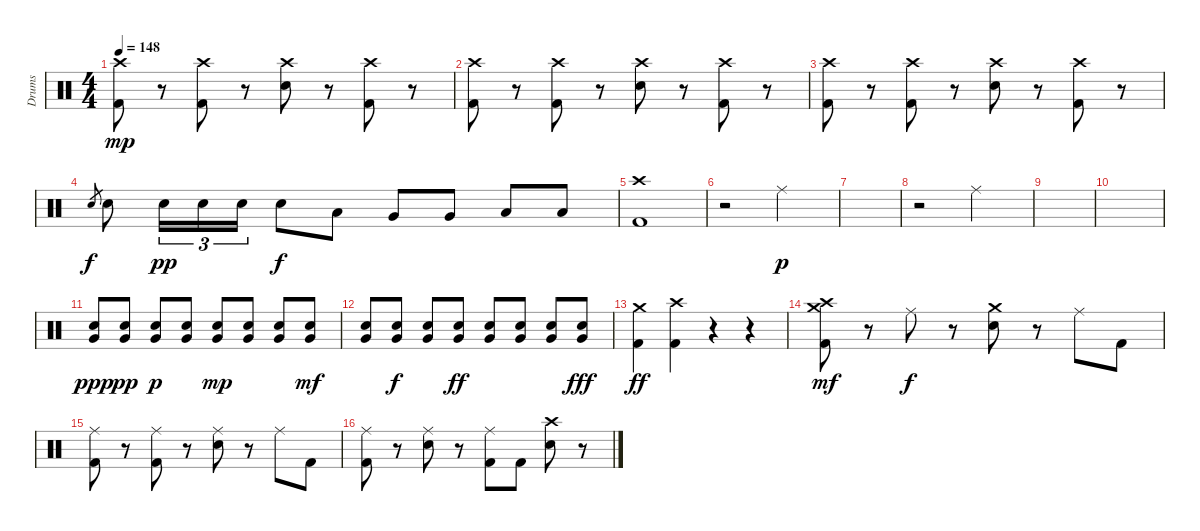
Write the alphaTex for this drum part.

\track ("Drums" "Drums") {instrument percussion}
\staff {score}
\articulation defaults
\ts (4 4)
\tempo 148
\clef neutral
\ks c
("Crash high (hit)" "Kick (hit) 2").8{dy mp} r.8 ("Crash high (hit)" "Kick (hit) 2").8 r.8 ("Crash high (hit)" "Snare (hit) 2").8 r.8 ("Crash high (hit)" "Kick (hit) 2").8 r.8 |
("Crash high (hit)" "Kick (hit) 2").8 r.8 ("Crash high (hit)" "Kick (hit) 2").8 r.8 ("Crash high (hit)" "Snare (hit) 2").8 r.8 ("Crash high (hit)" "Kick (hit) 2").8 r.8 |
("Crash high (hit)" "Kick (hit) 2").8 r.8 ("Crash high (hit)" "Kick (hit) 2").8 r.8 ("Crash high (hit)" "Snare (hit) 2").8 r.8 ("Crash high (hit)" "Kick (hit) 2").8 r.8 |
"Snare (hit) 2".8{gr dy f} "Snare (hit) 2".8 "Snare (hit) 2".16{tu (3 2) dy pp} "Snare (hit) 2".16{tu (3 2)} "Snare (hit) 2".16{tu (3 2)} "Snare (hit) 2".8{dy f} "Low Tom (hit)".8 "Very Low Tom (hit)".8 "Very Low Tom (hit)".8 "Low Floor Tom (hit)".8 "Low Floor Tom (hit)".8 |
("Crash high (hit)" "Kick (hit) 2").1 |
r.2 "Ride (middle)".2{dy p} |
|
r.2 "Ride (middle)".2 |
|
|
("Snare (hit) 2" "Very Low Tom (hit)").8{dy ppp} ("Snare (hit) 2" "Very Low Tom (hit)").8{dy pp} ("Snare (hit) 2" "Very Low Tom (hit)").8{dy p} ("Snare (hit) 2" "Very Low Tom (hit)").8 ("Snare (hit) 2" "Very Low Tom (hit)").8{dy mp} ("Snare (hit) 2" "Very Low Tom (hit)").8 ("Snare (hit) 2" "Very Low Tom (hit)").8 ("Snare (hit) 2" "Very Low Tom (hit)").8{dy mf} |
("Snare (hit) 2" "Very Low Tom (hit)").8 ("Snare (hit) 2" "Very Low Tom (hit)").8{dy f} ("Snare (hit) 2" "Very Low Tom (hit)").8 ("Snare (hit) 2" "Very Low Tom (hit)").8{dy ff} ("Snare (hit) 2" "Very Low Tom (hit)").8 ("Snare (hit) 2" "Very Low Tom (hit)").8 ("Snare (hit) 2" "Very Low Tom (hit)").8 ("Snare (hit) 2" "Very Low Tom (hit)").8{dy fff} |
("Crash medium (hit)" "Kick (hit) 2").4{dy ff} ("Crash high (hit)" "Kick (hit) 2").4 r.4 r.4 |
("Crash high (hit)" "Crash medium (hit)" "Kick (hit) 2").8{dy mf} r.8 "Ride (middle)".8{dy f} r.8 ("Crash medium (hit)" "Snare (hit) 2").8 r.8 "Ride (middle)".8 "Kick (hit) 2".8 |
("Ride (middle)" "Kick (hit) 2").8 r.8 ("Ride (middle)" "Kick (hit) 2").8 r.8 ("Ride (middle)" "Snare (hit) 2").8 r.8 "Ride (middle)".8 "Kick (hit) 2".8 |
("Ride (middle)" "Kick (hit) 2").8 r.8 ("Ride (middle)" "Snare (hit) 2").8 r.8 ("Ride (middle)" "Kick (hit) 2").8 "Kick (hit) 2".8 ("Crash high (hit)" "Snare (hit) 2").8 r.8
